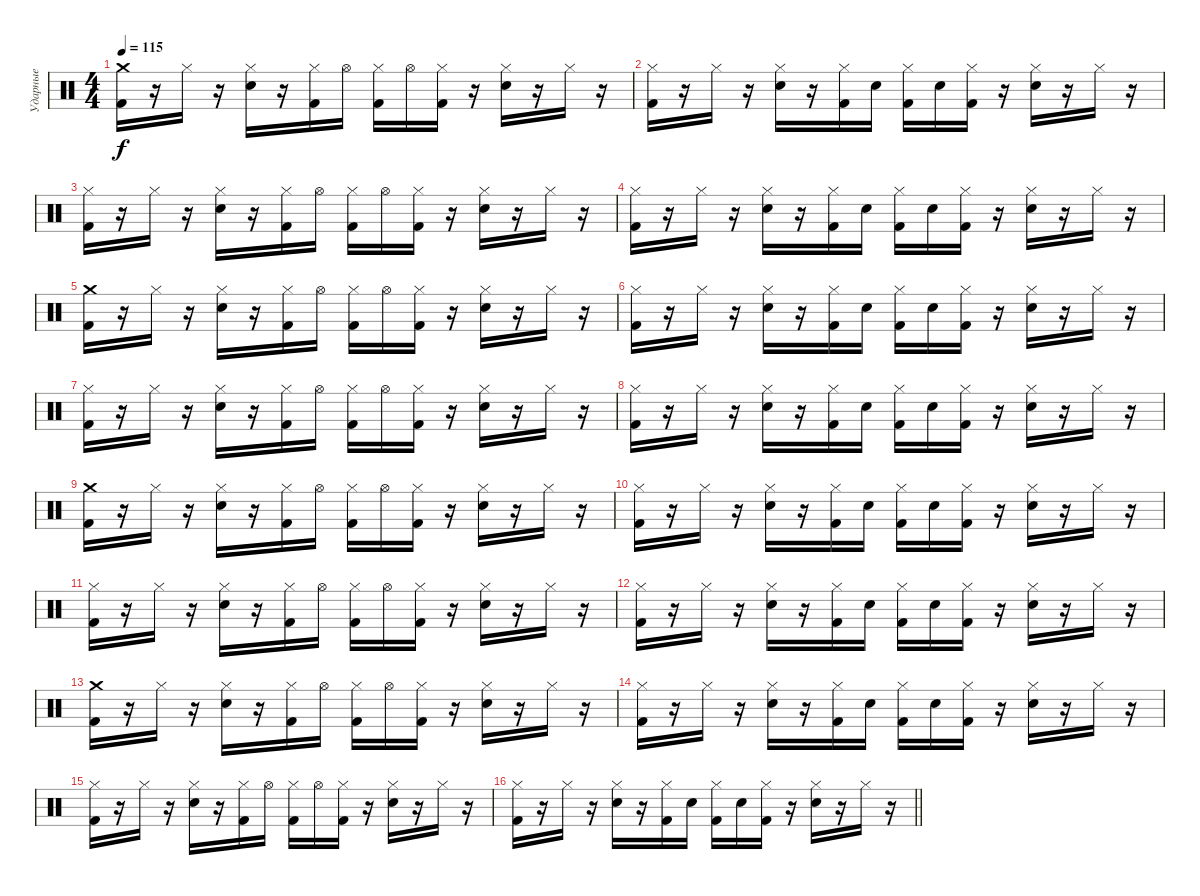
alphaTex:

\track ("Ударные" "Ударные") {instrument percussion}
\staff {score}
\articulation defaults
\ts (4 4)
\section ("" "")
\tempo 115
\clef neutral
\ks c
("Crash medium (hit)" "Kick (hit) 2").16{dy f} r.16 "Hi-Hat (closed)".16 r.16 ("Hi-Hat (closed)" "Snare (hit) 2").16 r.16 ("Hi-Hat (closed)" "Kick (hit) 2").16 "Hi-Hat (open)".16 ("Hi-Hat (closed)" "Kick (hit) 2").16 "Hi-Hat (open)".16 ("Hi-Hat (closed)" "Kick (hit) 2").16 r.16 ("Hi-Hat (closed)" "Snare (hit) 2").16 r.16 "Hi-Hat (closed)".16 r.16 |
("Hi-Hat (closed)" "Kick (hit) 2").16 r.16 "Hi-Hat (closed)".16 r.16 ("Hi-Hat (closed)" "Snare (hit) 2").16 r.16 ("Hi-Hat (closed)" "Kick (hit) 2").16 "Snare (hit) 2".16 ("Hi-Hat (closed)" "Kick (hit) 2").16 "Snare (hit) 2".16 ("Hi-Hat (closed)" "Kick (hit) 2").16 r.16 ("Hi-Hat (closed)" "Snare (hit) 2").16 r.16 "Hi-Hat (closed)".16 r.16 |
("Hi-Hat (closed)" "Kick (hit) 2").16 r.16 "Hi-Hat (closed)".16 r.16 ("Hi-Hat (closed)" "Snare (hit) 2").16 r.16 ("Hi-Hat (closed)" "Kick (hit) 2").16 "Hi-Hat (open)".16 ("Hi-Hat (closed)" "Kick (hit) 2").16 "Hi-Hat (open)".16 ("Hi-Hat (closed)" "Kick (hit) 2").16 r.16 ("Hi-Hat (closed)" "Snare (hit) 2").16 r.16 "Hi-Hat (closed)".16 r.16 |
("Hi-Hat (closed)" "Kick (hit) 2").16 r.16 "Hi-Hat (closed)".16 r.16 ("Hi-Hat (closed)" "Snare (hit) 2").16 r.16 ("Hi-Hat (closed)" "Kick (hit) 2").16 "Snare (hit) 2".16 ("Hi-Hat (closed)" "Kick (hit) 2").16 "Snare (hit) 2".16 ("Hi-Hat (closed)" "Kick (hit) 2").16 r.16 ("Hi-Hat (closed)" "Snare (hit) 2").16 r.16 "Hi-Hat (closed)".16 r.16 |
("Crash medium (hit)" "Kick (hit) 2").16 r.16 "Hi-Hat (closed)".16 r.16 ("Hi-Hat (closed)" "Snare (hit) 2").16 r.16 ("Hi-Hat (closed)" "Kick (hit) 2").16 "Hi-Hat (open)".16 ("Hi-Hat (closed)" "Kick (hit) 2").16 "Hi-Hat (open)".16 ("Hi-Hat (closed)" "Kick (hit) 2").16 r.16 ("Hi-Hat (closed)" "Snare (hit) 2").16 r.16 "Hi-Hat (closed)".16 r.16 |
("Hi-Hat (closed)" "Kick (hit) 2").16 r.16 "Hi-Hat (closed)".16 r.16 ("Hi-Hat (closed)" "Snare (hit) 2").16 r.16 ("Hi-Hat (closed)" "Kick (hit) 2").16 "Snare (hit) 2".16 ("Hi-Hat (closed)" "Kick (hit) 2").16 "Snare (hit) 2".16 ("Hi-Hat (closed)" "Kick (hit) 2").16 r.16 ("Hi-Hat (closed)" "Snare (hit) 2").16 r.16 "Hi-Hat (closed)".16 r.16 |
("Hi-Hat (closed)" "Kick (hit) 2").16 r.16 "Hi-Hat (closed)".16 r.16 ("Hi-Hat (closed)" "Snare (hit) 2").16 r.16 ("Hi-Hat (closed)" "Kick (hit) 2").16 "Hi-Hat (open)".16 ("Hi-Hat (closed)" "Kick (hit) 2").16 "Hi-Hat (open)".16 ("Hi-Hat (closed)" "Kick (hit) 2").16 r.16 ("Hi-Hat (closed)" "Snare (hit) 2").16 r.16 "Hi-Hat (closed)".16 r.16 |
("Hi-Hat (closed)" "Kick (hit) 2").16 r.16 "Hi-Hat (closed)".16 r.16 ("Hi-Hat (closed)" "Snare (hit) 2").16 r.16 ("Hi-Hat (closed)" "Kick (hit) 2").16 "Snare (hit) 2".16 ("Hi-Hat (closed)" "Kick (hit) 2").16 "Snare (hit) 2".16 ("Hi-Hat (closed)" "Kick (hit) 2").16 r.16 ("Hi-Hat (closed)" "Snare (hit) 2").16 r.16 "Hi-Hat (closed)".16 r.16 |
("Crash medium (hit)" "Kick (hit) 2").16 r.16 "Hi-Hat (closed)".16 r.16 ("Hi-Hat (closed)" "Snare (hit) 2").16 r.16 ("Hi-Hat (closed)" "Kick (hit) 2").16 "Hi-Hat (open)".16 ("Hi-Hat (closed)" "Kick (hit) 2").16 "Hi-Hat (open)".16 ("Hi-Hat (closed)" "Kick (hit) 2").16 r.16 ("Hi-Hat (closed)" "Snare (hit) 2").16 r.16 "Hi-Hat (closed)".16 r.16 |
("Hi-Hat (closed)" "Kick (hit) 2").16 r.16 "Hi-Hat (closed)".16 r.16 ("Hi-Hat (closed)" "Snare (hit) 2").16 r.16 ("Hi-Hat (closed)" "Kick (hit) 2").16 "Snare (hit) 2".16 ("Hi-Hat (closed)" "Kick (hit) 2").16 "Snare (hit) 2".16 ("Hi-Hat (closed)" "Kick (hit) 2").16 r.16 ("Hi-Hat (closed)" "Snare (hit) 2").16 r.16 "Hi-Hat (closed)".16 r.16 |
("Hi-Hat (closed)" "Kick (hit) 2").16 r.16 "Hi-Hat (closed)".16 r.16 ("Hi-Hat (closed)" "Snare (hit) 2").16 r.16 ("Hi-Hat (closed)" "Kick (hit) 2").16 "Hi-Hat (open)".16 ("Hi-Hat (closed)" "Kick (hit) 2").16 "Hi-Hat (open)".16 ("Hi-Hat (closed)" "Kick (hit) 2").16 r.16 ("Hi-Hat (closed)" "Snare (hit) 2").16 r.16 "Hi-Hat (closed)".16 r.16 |
("Hi-Hat (closed)" "Kick (hit) 2").16 r.16 "Hi-Hat (closed)".16 r.16 ("Hi-Hat (closed)" "Snare (hit) 2").16 r.16 ("Hi-Hat (closed)" "Kick (hit) 2").16 "Snare (hit) 2".16 ("Hi-Hat (closed)" "Kick (hit) 2").16 "Snare (hit) 2".16 ("Hi-Hat (closed)" "Kick (hit) 2").16 r.16 ("Hi-Hat (closed)" "Snare (hit) 2").16 r.16 "Hi-Hat (closed)".16 r.16 |
("Crash medium (hit)" "Kick (hit) 2").16 r.16 "Hi-Hat (closed)".16 r.16 ("Hi-Hat (closed)" "Snare (hit) 2").16 r.16 ("Hi-Hat (closed)" "Kick (hit) 2").16 "Hi-Hat (open)".16 ("Hi-Hat (closed)" "Kick (hit) 2").16 "Hi-Hat (open)".16 ("Hi-Hat (closed)" "Kick (hit) 2").16 r.16 ("Hi-Hat (closed)" "Snare (hit) 2").16 r.16 "Hi-Hat (closed)".16 r.16 |
("Hi-Hat (closed)" "Kick (hit) 2").16 r.16 "Hi-Hat (closed)".16 r.16 ("Hi-Hat (closed)" "Snare (hit) 2").16 r.16 ("Hi-Hat (closed)" "Kick (hit) 2").16 "Snare (hit) 2".16 ("Hi-Hat (closed)" "Kick (hit) 2").16 "Snare (hit) 2".16 ("Hi-Hat (closed)" "Kick (hit) 2").16 r.16 ("Hi-Hat (closed)" "Snare (hit) 2").16 r.16 "Hi-Hat (closed)".16 r.16 |
("Hi-Hat (closed)" "Kick (hit) 2").16 r.16 "Hi-Hat (closed)".16 r.16 ("Hi-Hat (closed)" "Snare (hit) 2").16 r.16 ("Hi-Hat (closed)" "Kick (hit) 2").16 "Hi-Hat (open)".16 ("Hi-Hat (closed)" "Kick (hit) 2").16 "Hi-Hat (open)".16 ("Hi-Hat (closed)" "Kick (hit) 2").16 r.16 ("Hi-Hat (closed)" "Snare (hit) 2").16 r.16 "Hi-Hat (closed)".16 r.16 |
\barLineRight lightlight
("Hi-Hat (closed)" "Kick (hit) 2").16 r.16 "Hi-Hat (closed)".16 r.16 ("Hi-Hat (closed)" "Snare (hit) 2").16 r.16 ("Hi-Hat (closed)" "Kick (hit) 2").16 "Snare (hit) 2".16 ("Hi-Hat (closed)" "Kick (hit) 2").16 "Snare (hit) 2".16 ("Hi-Hat (closed)" "Kick (hit) 2").16 r.16 ("Hi-Hat (closed)" "Snare (hit) 2").16 r.16 "Hi-Hat (closed)".16 r.16
